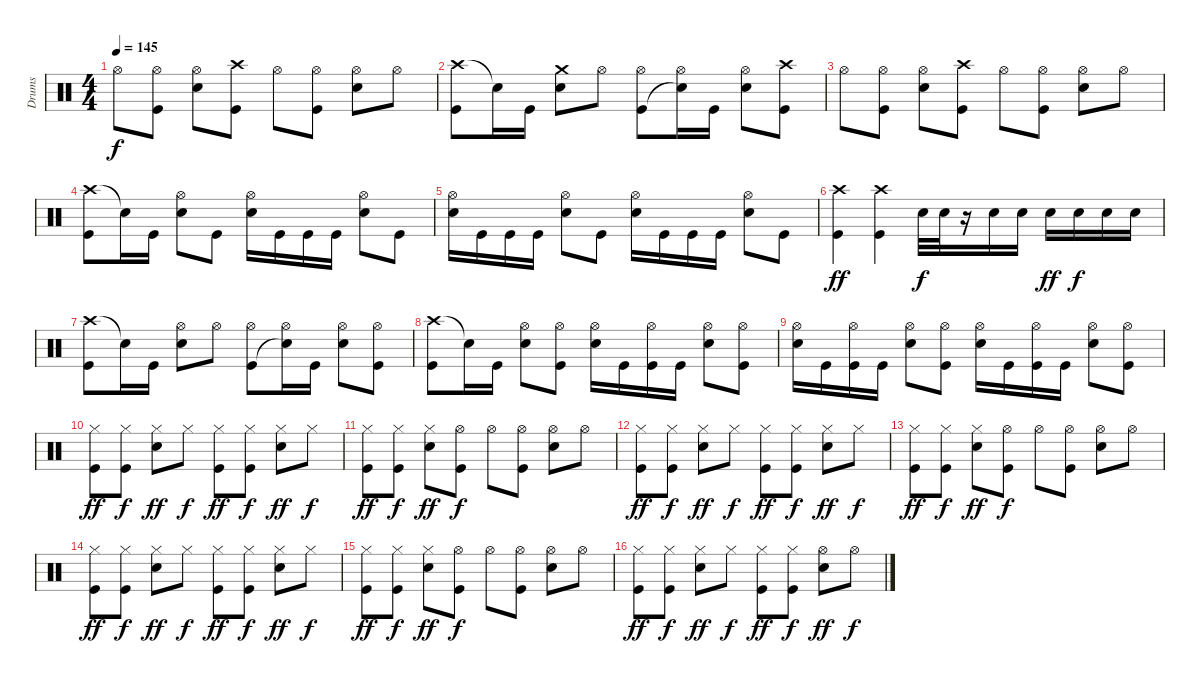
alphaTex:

\track ("Drums" "Drums") {instrument percussion}
\staff {score}
\articulation defaults
\ts (4 4)
\tempo 145
\clef neutral
\ks c "Hi-Hat (open)".8{dy f}
("Hi-Hat (open)" "Kick (hit)").8 ("Hi-Hat (open)" "Snare (hit) 2").8 ("Crash high (hit)" "Kick (hit)").8 "Hi-Hat (open)".8 ("Hi-Hat (open)" "Kick (hit)").8 ("Hi-Hat (open)" "Snare (hit) 2").8 "Hi-Hat (open)".8 |
("Crash high (hit)" "Kick (hit)").8 "Snare (hit) 2"{t}.16 "Kick (hit)".16 ("Crash medium (hit)" "Snare (hit) 2").8 "Hi-Hat (open)".8 ("Hi-Hat (open)" "Kick (hit)").8 ("Hi-Hat (open)" "Snare (hit)"{t}).16 "Kick (hit)".16 ("Hi-Hat (open)" "Snare (hit) 2").8 ("Crash high (hit)" "Kick (hit)").8 |
"Hi-Hat (open)".8 ("Hi-Hat (open)" "Kick (hit)").8 ("Hi-Hat (open)" "Snare (hit) 2").8 ("Crash high (hit)" "Kick (hit)").8 "Hi-Hat (open)".8 ("Hi-Hat (open)" "Kick (hit)").8 ("Hi-Hat (open)" "Snare (hit) 2").8 "Hi-Hat (open)".8 |
("Crash high (hit)" "Kick (hit)").8 "Snare (hit)"{t}.16 "Kick (hit)".16 ("Hi-Hat (open)" "Snare (hit) 2").8 "Kick (hit)".8 ("Hi-Hat (open)" "Snare (hit) 2").16 "Kick (hit)".16 "Kick (hit)".16 "Kick (hit)".16 ("Hi-Hat (open)" "Snare (hit) 2").8 "Kick (hit)".8 |
("Hi-Hat (open)" "Snare (hit) 2").16 "Kick (hit)".16 "Kick (hit)".16 "Kick (hit)".16 ("Hi-Hat (open)" "Snare (hit) 2").8 "Kick (hit)".8 ("Hi-Hat (open)" "Snare (hit) 2").16 "Kick (hit)".16 "Kick (hit)".16 "Kick (hit)".16 ("Hi-Hat (open)" "Snare (hit) 2").8 "Kick (hit)".8 |
("Crash high (hit)" "Kick (hit)").4{dy ff} ("Crash high (hit)" "Kick (hit)").4 "Snare (hit) 2".32{dy f} "Snare (hit) 2".32 r.16 "Snare (hit) 2".16 "Snare (hit) 2".16 "Snare (hit) 2".16{dy ff} "Snare (hit) 2".16{dy f} "Snare (hit) 2".16 "Snare (hit) 2".16 |
("Crash high (hit)" "Kick (hit)").8 "Snare (hit) 2"{t}.16 "Kick (hit)".16 ("Hi-Hat (open)" "Snare (hit) 2").8 "Hi-Hat (open)".8 ("Hi-Hat (open)" "Kick (hit)").8 ("Hi-Hat (open)" "Snare (hit)"{t}).16 "Kick (hit)".16 ("Hi-Hat (open)" "Snare (hit) 2").8 ("Hi-Hat (open)" "Kick (hit)").8 |
("Crash high (hit)" "Kick (hit)").8 "Snare (hit)"{t}.16 "Kick (hit)".16 ("Hi-Hat (open)" "Snare (hit) 2").8 ("Hi-Hat (open)" "Kick (hit)").8 ("Hi-Hat (open)" "Snare (hit) 2").16 "Kick (hit)".16 ("Hi-Hat (open)" "Kick (hit)").16 "Kick (hit)".16 ("Hi-Hat (open)" "Snare (hit) 2").8 ("Hi-Hat (open)" "Kick (hit)").8 |
("Hi-Hat (open)" "Snare (hit) 2").16 "Kick (hit)".16 ("Hi-Hat (open)" "Kick (hit)").16 "Kick (hit)".16 ("Hi-Hat (open)" "Snare (hit) 2").8 ("Hi-Hat (open)" "Kick (hit)").8 ("Hi-Hat (open)" "Snare (hit) 2").16 "Kick (hit)".16 ("Hi-Hat (open)" "Kick (hit)").16 "Kick (hit)".16 ("Hi-Hat (open)" "Snare (hit) 2").8 ("Hi-Hat (open)" "Kick (hit)").8 |
("Hi-Hat (closed)" "Kick (hit)").8{dy ff} ("Hi-Hat (closed)" "Kick (hit)").8{dy f} ("Hi-Hat (closed)" "Snare (hit) 2").8{dy ff} "Hi-Hat (closed)".8{dy f} ("Hi-Hat (closed)" "Kick (hit)").8{dy ff} ("Hi-Hat (closed)" "Kick (hit)").8{dy f} ("Hi-Hat (closed)" "Snare (hit) 2").8{dy ff} "Hi-Hat (closed)".8{dy f} |
("Hi-Hat (closed)" "Kick (hit)").8{dy ff} ("Hi-Hat (closed)" "Kick (hit)").8{dy f} ("Hi-Hat (closed)" "Snare (hit) 2").8{dy ff} ("Hi-Hat (open)" "Kick (hit)").8{dy f} "Hi-Hat (open)".8 ("Hi-Hat (open)" "Kick (hit)").8 ("Hi-Hat (open)" "Snare (hit) 2").8 "Hi-Hat (open)".8 |
("Hi-Hat (closed)" "Kick (hit)").8{dy ff} ("Hi-Hat (closed)" "Kick (hit)").8{dy f} ("Hi-Hat (closed)" "Snare (hit) 2").8{dy ff} "Hi-Hat (closed)".8{dy f} ("Hi-Hat (closed)" "Kick (hit)").8{dy ff} ("Hi-Hat (closed)" "Kick (hit)").8{dy f} ("Hi-Hat (closed)" "Snare (hit) 2").8{dy ff} "Hi-Hat (closed)".8{dy f} |
("Hi-Hat (closed)" "Kick (hit)").8{dy ff} ("Hi-Hat (closed)" "Kick (hit)").8{dy f} ("Hi-Hat (closed)" "Snare (hit) 2").8{dy ff} ("Hi-Hat (open)" "Kick (hit)").8{dy f} "Hi-Hat (open)".8 ("Hi-Hat (open)" "Kick (hit)").8 ("Hi-Hat (open)" "Snare (hit) 2").8 "Hi-Hat (open)".8 |
("Hi-Hat (closed)" "Kick (hit)").8{dy ff} ("Hi-Hat (closed)" "Kick (hit)").8{dy f} ("Hi-Hat (closed)" "Snare (hit) 2").8{dy ff} "Hi-Hat (closed)".8{dy f} ("Hi-Hat (closed)" "Kick (hit)").8{dy ff} ("Hi-Hat (closed)" "Kick (hit)").8{dy f} ("Hi-Hat (closed)" "Snare (hit) 2").8{dy ff} "Hi-Hat (closed)".8{dy f} |
("Hi-Hat (closed)" "Kick (hit)").8{dy ff} ("Hi-Hat (closed)" "Kick (hit)").8{dy f} ("Hi-Hat (closed)" "Snare (hit) 2").8{dy ff} ("Hi-Hat (open)" "Kick (hit)").8{dy f} "Hi-Hat (open)".8 ("Hi-Hat (open)" "Kick (hit)").8 ("Hi-Hat (open)" "Snare (hit) 2").8 "Hi-Hat (open)".8 |
("Hi-Hat (closed)" "Kick (hit)").8{dy ff} ("Hi-Hat (closed)" "Kick (hit)").8{dy f} ("Hi-Hat (closed)" "Snare (hit) 2").8{dy ff} "Hi-Hat (closed)".8{dy f} ("Hi-Hat (closed)" "Kick (hit)").8{dy ff} ("Hi-Hat (closed)" "Kick (hit)").8{dy f} ("Hi-Hat (open)" "Snare (hit) 2").8{dy ff} "Hi-Hat (open)".8{dy f}
